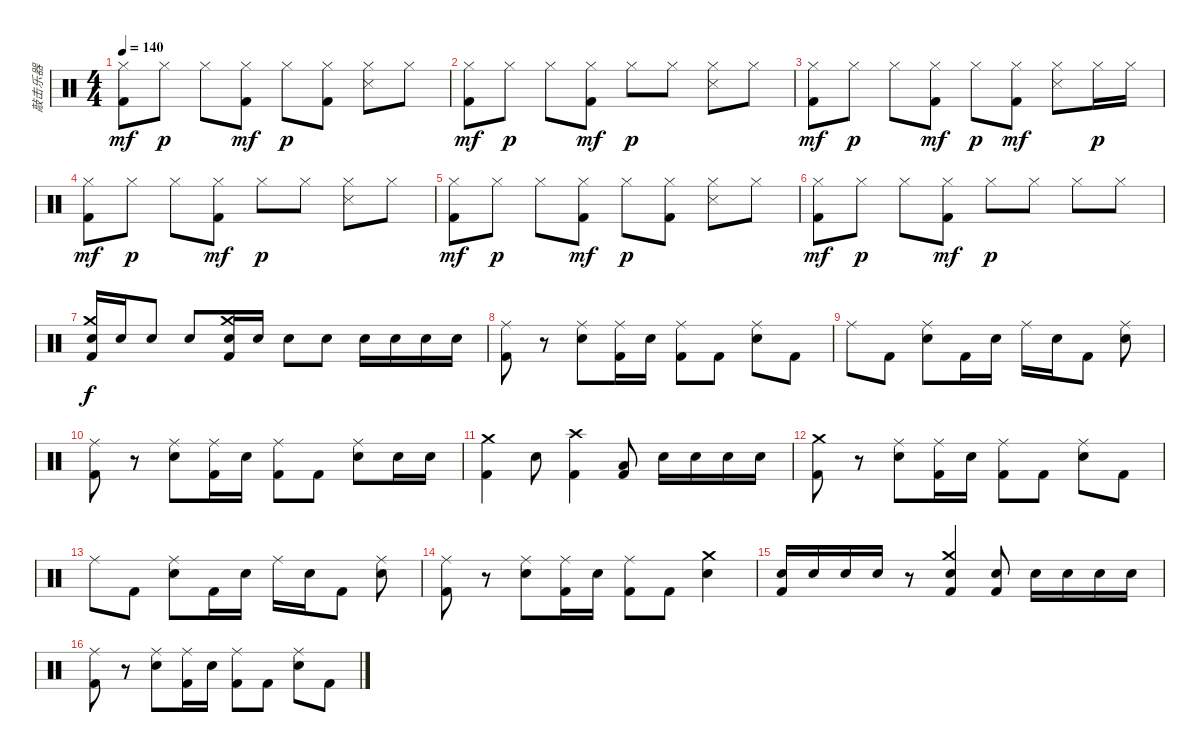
\track ("敲击乐器" "敲击乐器") {instrument percussion}
\staff {score}
\articulation defaults
\ts (4 4)
\tempo 140
\clef neutral
\ks c
("Hi-Hat (closed)" "Kick (hit) 2").8{dy mf} "Hi-Hat (closed)".8{dy p} "Hi-Hat (closed)".8 ("Hi-Hat (closed)" "Kick (hit) 2").8{dy mf} "Hi-Hat (closed)".8{dy p} ("Hi-Hat (closed)" "Kick (hit) 2").8 ("Hi-Hat (closed)" "Snare (side stick) 3").8 "Hi-Hat (closed)".8 |
("Hi-Hat (closed)" "Kick (hit) 2").8{dy mf} "Hi-Hat (closed)".8{dy p} "Hi-Hat (closed)".8 ("Hi-Hat (closed)" "Kick (hit) 2").8{dy mf} "Hi-Hat (closed)".8{dy p} "Hi-Hat (closed)".8 ("Hi-Hat (closed)" "Snare (side stick) 3").8 "Hi-Hat (closed)".8 |
("Hi-Hat (closed)" "Kick (hit) 2").8{dy mf} "Hi-Hat (closed)".8{dy p} "Hi-Hat (closed)".8 ("Hi-Hat (closed)" "Kick (hit) 2").8{dy mf} "Hi-Hat (closed)".8{dy p} ("Hi-Hat (closed)" "Kick (hit) 2").8{dy mf} ("Hi-Hat (closed)" "Snare (side stick) 3").8 "Hi-Hat (closed)".16{dy p} "Hi-Hat (closed)".16 |
("Hi-Hat (closed)" "Kick (hit) 2").8{dy mf} "Hi-Hat (closed)".8{dy p} "Hi-Hat (closed)".8 ("Hi-Hat (closed)" "Kick (hit) 2").8{dy mf} "Hi-Hat (closed)".8{dy p} "Hi-Hat (closed)".8 ("Hi-Hat (closed)" "Snare (side stick) 3").8 "Hi-Hat (closed)".8 |
("Hi-Hat (closed)" "Kick (hit) 2").8{dy mf} "Hi-Hat (closed)".8{dy p} "Hi-Hat (closed)".8 ("Hi-Hat (closed)" "Kick (hit) 2").8{dy mf} "Hi-Hat (closed)".8{dy p} ("Hi-Hat (closed)" "Kick (hit) 2").8 ("Hi-Hat (closed)" "Snare (side stick) 3").8 "Hi-Hat (closed)".8 |
("Hi-Hat (closed)" "Kick (hit) 2").8{dy mf} "Hi-Hat (closed)".8{dy p} "Hi-Hat (closed)".8 ("Hi-Hat (closed)" "Kick (hit) 2").8{dy mf} "Hi-Hat (closed)".8{dy p} "Hi-Hat (closed)".8 "Hi-Hat (closed)".8 "Hi-Hat (closed)".8 |
("Crash medium (hit)" "Snare (hit) 2" "Kick (hit) 2").16{dy f} "Snare (hit) 2".16 "Snare (hit) 2".8 "Snare (hit) 2".8 ("Crash medium (hit)" "Snare (hit) 2" "Kick (hit) 2").16 "Snare (hit) 2".16 "Snare (hit) 2".8 "Snare (hit) 2".8 "Snare (hit) 2".16 "Snare (hit) 2".16 "Snare (hit) 2".16 "Snare (hit) 2".16 |
("Ride (middle)" "Kick (hit) 2").8 r.8 ("Ride (middle)" "Snare (hit) 2").8 ("Ride (middle)" "Kick (hit) 2").16 "Snare (hit) 2".16 ("Ride (middle)" "Kick (hit) 2").8 "Kick (hit) 2".8 ("Ride (middle)" "Snare (hit) 2").8 "Kick (hit) 2".8 |
"Ride (middle)".8 "Kick (hit) 2".8 ("Ride (middle)" "Snare (hit) 2").8 "Kick (hit) 2".16 "Snare (hit) 2".16 "Ride (middle)".16 "Snare (hit) 2".16 "Kick (hit) 2".8 ("Ride (middle)" "Snare (hit) 2").8 |
("Ride (middle)" "Kick (hit) 2").8 r.8 ("Ride (middle)" "Snare (hit) 2").8 ("Ride (middle)" "Kick (hit) 2").16 "Snare (hit) 2".16 ("Ride (middle)" "Kick (hit) 2").8 "Kick (hit) 2".8 ("Ride (middle)" "Snare (hit) 2").8 "Snare (hit) 2".16 "Snare (hit) 2".16 |
("Crash medium (hit)" "Kick (hit) 2").4 "Snare (hit) 2".8 ("Crash high (hit)" "Kick (hit) 2").4 ("Low Tom (hit)" "Kick (hit) 2").8 "Snare (hit) 2".16 "Snare (hit) 2".16 "Snare (hit) 2".16 "Snare (hit) 2".16 |
("Crash medium (hit)" "Kick (hit) 2").8 r.8 ("Ride (middle)" "Snare (hit) 2").8 ("Ride (middle)" "Kick (hit) 2").16 "Snare (hit) 2".16 ("Ride (middle)" "Kick (hit) 2").8 "Kick (hit) 2".8 ("Ride (middle)" "Snare (hit) 2").8 "Kick (hit) 2".8 |
"Ride (middle)".8 "Kick (hit) 2".8 ("Ride (middle)" "Snare (hit) 2").8 "Kick (hit) 2".16 "Snare (hit) 2".16 "Ride (middle)".16 "Snare (hit) 2".16 "Kick (hit) 2".8 ("Ride (middle)" "Snare (hit) 2").8 |
("Ride (middle)" "Kick (hit) 2").8 r.8 ("Ride (middle)" "Snare (hit) 2").8 ("Ride (middle)" "Kick (hit) 2").16 "Snare (hit) 2".16 ("Ride (middle)" "Kick (hit) 2").8 "Kick (hit) 2".8 ("Crash medium (hit)" "Snare (hit) 2").4 |
("Snare (hit) 2" "Kick (hit) 2").16 "Snare (hit) 2".16 "Snare (hit) 2".16 "Snare (hit) 2".16 r.8 ("Crash medium (hit)" "Snare (hit) 2" "Kick (hit) 2").4 ("Snare (hit) 2" "Kick (hit) 2").8 "Snare (hit) 2".16 "Snare (hit) 2".16 "Snare (hit) 2".16 "Snare (hit) 2".16 |
("Ride (middle)" "Kick (hit) 2").8 r.8 ("Ride (middle)" "Snare (hit) 2").8 ("Ride (middle)" "Kick (hit) 2").16 "Snare (hit) 2".16 ("Ride (middle)" "Kick (hit) 2").8 "Kick (hit) 2".8 ("Ride (middle)" "Snare (hit) 2").8 "Kick (hit) 2".8
